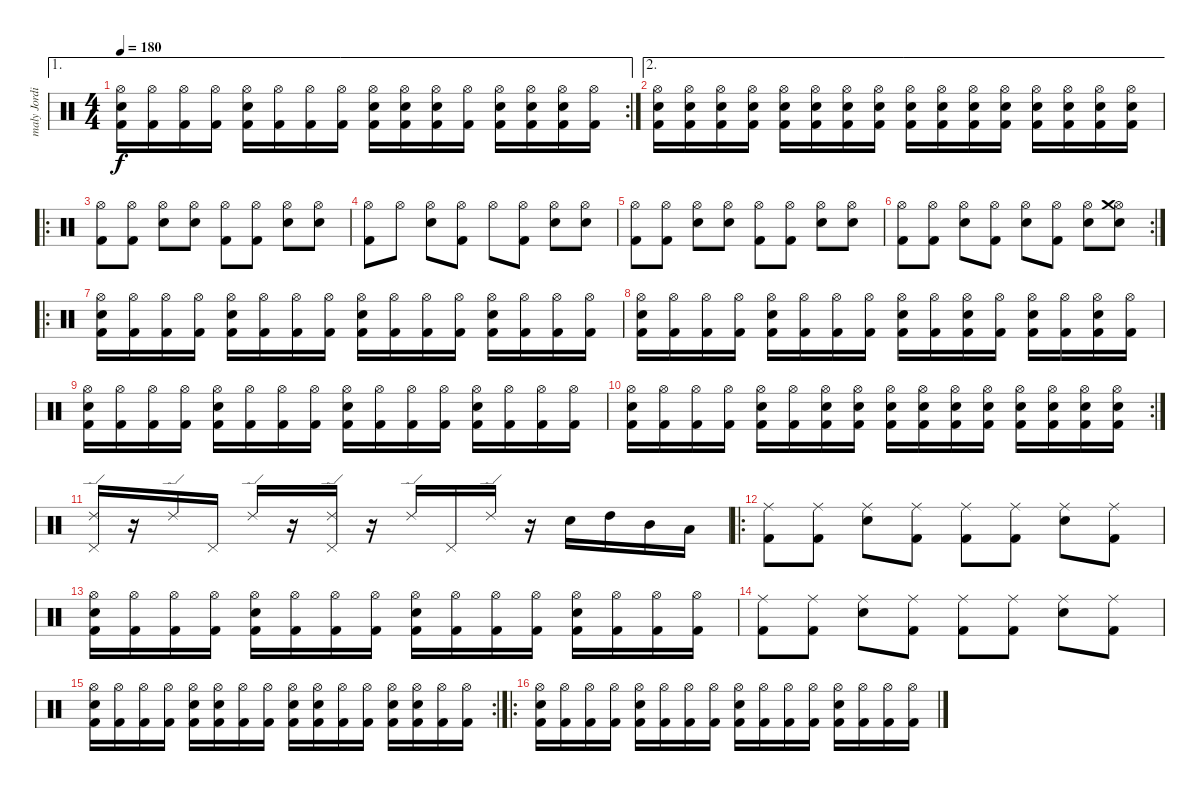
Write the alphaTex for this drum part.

\track ("maly Jordison " "maly Jordi") {instrument percussion}
\staff {score}
\articulation defaults
\ae 1
\rc 2
\ts (4 4)
\tempo 180
\clef neutral
\ks c
("Hi-Hat (open)" "Electric Snare (hit)" "Kick (hit) 2").16{dy f} ("Hi-Hat (open)" "Kick (hit) 2").16 ("Hi-Hat (open)" "Kick (hit) 2").16 ("Hi-Hat (open)" "Kick (hit) 2").16 ("Hi-Hat (open)" "Electric Snare (hit)" "Kick (hit) 2").16 ("Hi-Hat (open)" "Kick (hit) 2").16 ("Hi-Hat (open)" "Kick (hit) 2").16 ("Hi-Hat (open)" "Kick (hit) 2").16 ("Hi-Hat (open)" "Electric Snare (hit)" "Kick (hit) 2").16 ("Hi-Hat (open)" "Electric Snare (hit)" "Kick (hit) 2").16 ("Hi-Hat (open)" "Electric Snare (hit)" "Kick (hit) 2").16 ("Hi-Hat (open)" "Kick (hit) 2").16 ("Hi-Hat (open)" "Electric Snare (hit)" "Kick (hit) 2").16 ("Hi-Hat (open)" "Electric Snare (hit)" "Kick (hit) 2").16 ("Hi-Hat (open)" "Electric Snare (hit)" "Kick (hit) 2").16 ("Hi-Hat (open)" "Kick (hit) 2").16 |
\ae 2
("Hi-Hat (open)" "Electric Snare (hit)" "Kick (hit) 2").16 ("Hi-Hat (open)" "Electric Snare (hit)" "Kick (hit) 2").16 ("Hi-Hat (open)" "Electric Snare (hit)" "Kick (hit) 2").16 ("Hi-Hat (open)" "Electric Snare (hit)" "Kick (hit) 2").16 ("Hi-Hat (open)" "Electric Snare (hit)" "Kick (hit) 2").16 ("Hi-Hat (open)" "Electric Snare (hit)" "Kick (hit) 2").16 ("Hi-Hat (open)" "Electric Snare (hit)" "Kick (hit) 2").16 ("Hi-Hat (open)" "Electric Snare (hit)" "Kick (hit) 2").16 ("Hi-Hat (open)" "Electric Snare (hit)" "Kick (hit) 2").16 ("Hi-Hat (open)" "Electric Snare (hit)" "Kick (hit) 2").16 ("Hi-Hat (open)" "Electric Snare (hit)" "Kick (hit) 2").16 ("Hi-Hat (open)" "Electric Snare (hit)" "Kick (hit) 2").16 ("Hi-Hat (open)" "Electric Snare (hit)" "Kick (hit) 2").16 ("Hi-Hat (open)" "Electric Snare (hit)" "Kick (hit) 2").16 ("Hi-Hat (open)" "Electric Snare (hit)" "Kick (hit) 2").16 ("Hi-Hat (open)" "Electric Snare (hit)" "Kick (hit) 2").16 |
\ro
("Hi-Hat (open)" "Kick (hit) 2").8 ("Hi-Hat (open)" "Kick (hit) 2").8 ("Hi-Hat (open)" "Electric Snare (hit)").8 ("Hi-Hat (open)" "Electric Snare (hit)").8 ("Hi-Hat (open)" "Kick (hit) 2").8 ("Hi-Hat (open)" "Kick (hit) 2").8 ("Hi-Hat (open)" "Electric Snare (hit)").8 ("Hi-Hat (open)" "Electric Snare (hit)").8 |
("Hi-Hat (open)" "Kick (hit) 2").8 "Hi-Hat (open)".8 ("Hi-Hat (open)" "Electric Snare (hit)").8 ("Hi-Hat (open)" "Kick (hit) 2").8 "Hi-Hat (open)".8 ("Hi-Hat (open)" "Kick (hit) 2").8 ("Hi-Hat (open)" "Electric Snare (hit)").8 ("Hi-Hat (open)" "Electric Snare (hit)").8 |
("Hi-Hat (open)" "Kick (hit) 2").8 ("Hi-Hat (open)" "Kick (hit) 2").8 ("Hi-Hat (open)" "Electric Snare (hit)").8 ("Hi-Hat (open)" "Electric Snare (hit)").8 ("Hi-Hat (open)" "Kick (hit) 2").8 ("Hi-Hat (open)" "Kick (hit) 2").8 ("Hi-Hat (open)" "Electric Snare (hit)").8 ("Hi-Hat (open)" "Electric Snare (hit)").8 |
\rc 2
("Hi-Hat (open)" "Kick (hit) 2").8 ("Hi-Hat (open)" "Kick (hit) 2").8 ("Hi-Hat (open)" "Electric Snare (hit)").8 ("Hi-Hat (open)" "Kick (hit) 2").8 ("Hi-Hat (open)" "Electric Snare (hit)").8 ("Hi-Hat (open)" "Kick (hit) 2").8 ("Hi-Hat (open)" "Electric Snare (hit)").8 ("Hi-Hat (open)" "Crash medium (hit)" "Electric Snare (hit)").8 |
\ro
("Hi-Hat (open)" "Electric Snare (hit)" "Kick (hit) 2").16 ("Hi-Hat (open)" "Kick (hit) 2").16 ("Hi-Hat (open)" "Kick (hit) 2").16 ("Hi-Hat (open)" "Kick (hit) 2").16 ("Hi-Hat (open)" "Electric Snare (hit)" "Kick (hit) 2").16 ("Hi-Hat (open)" "Kick (hit) 2").16 ("Hi-Hat (open)" "Kick (hit) 2").16 ("Hi-Hat (open)" "Kick (hit) 2").16 ("Hi-Hat (open)" "Electric Snare (hit)" "Kick (hit) 2").16 ("Hi-Hat (open)" "Kick (hit) 2").16 ("Hi-Hat (open)" "Kick (hit) 2").16 ("Hi-Hat (open)" "Kick (hit) 2").16 ("Hi-Hat (open)" "Electric Snare (hit)" "Kick (hit) 2").16 ("Hi-Hat (open)" "Kick (hit) 2").16 ("Hi-Hat (open)" "Kick (hit) 2").16 ("Hi-Hat (open)" "Kick (hit) 2").16 |
("Hi-Hat (open)" "Electric Snare (hit)" "Kick (hit) 2").16 ("Hi-Hat (open)" "Kick (hit) 2").16 ("Hi-Hat (open)" "Kick (hit) 2").16 ("Hi-Hat (open)" "Kick (hit) 2").16 ("Hi-Hat (open)" "Electric Snare (hit)" "Kick (hit) 2").16 ("Hi-Hat (open)" "Kick (hit) 2").16 ("Hi-Hat (open)" "Kick (hit) 2").16 ("Hi-Hat (open)" "Kick (hit) 2").16 ("Hi-Hat (open)" "Electric Snare (hit)" "Kick (hit) 2").16 ("Hi-Hat (open)" "Kick (hit) 2").16 ("Hi-Hat (open)" "Electric Snare (hit)" "Kick (hit) 2").16 ("Hi-Hat (open)" "Kick (hit) 2").16 ("Hi-Hat (open)" "Electric Snare (hit)" "Kick (hit) 2").16 ("Hi-Hat (open)" "Kick (hit) 2").16 ("Hi-Hat (open)" "Electric Snare (hit)" "Kick (hit) 2").16 ("Hi-Hat (open)" "Kick (hit) 2").16 |
("Hi-Hat (open)" "Electric Snare (hit)" "Kick (hit) 2").16 ("Hi-Hat (open)" "Kick (hit) 2").16 ("Hi-Hat (open)" "Kick (hit) 2").16 ("Hi-Hat (open)" "Kick (hit) 2").16 ("Hi-Hat (open)" "Electric Snare (hit)" "Kick (hit) 2").16 ("Hi-Hat (open)" "Kick (hit) 2").16 ("Hi-Hat (open)" "Kick (hit) 2").16 ("Hi-Hat (open)" "Kick (hit) 2").16 ("Hi-Hat (open)" "Electric Snare (hit)" "Kick (hit) 2").16 ("Hi-Hat (open)" "Kick (hit) 2").16 ("Hi-Hat (open)" "Kick (hit) 2").16 ("Hi-Hat (open)" "Kick (hit) 2").16 ("Hi-Hat (open)" "Electric Snare (hit)" "Kick (hit) 2").16 ("Hi-Hat (open)" "Kick (hit) 2").16 ("Hi-Hat (open)" "Kick (hit) 2").16 ("Hi-Hat (open)" "Kick (hit) 2").16 |
\rc 2
("Hi-Hat (open)" "Electric Snare (hit)" "Kick (hit) 2").16 ("Hi-Hat (open)" "Kick (hit) 2").16 ("Hi-Hat (open)" "Kick (hit) 2").16 ("Hi-Hat (open)" "Kick (hit) 2").16 ("Hi-Hat (open)" "Electric Snare (hit)" "Kick (hit) 2").16 ("Hi-Hat (open)" "Kick (hit) 2").16 ("Hi-Hat (open)" "Electric Snare (hit)" "Kick (hit) 2").16 ("Hi-Hat (open)" "Electric Snare (hit)" "Kick (hit) 2").16 ("Hi-Hat (open)" "Electric Snare (hit)" "Kick (hit) 2").16 ("Hi-Hat (open)" "Electric Snare (hit)" "Kick (hit) 2").16 ("Hi-Hat (open)" "Electric Snare (hit)" "Kick (hit) 2").16 ("Hi-Hat (open)" "Electric Snare (hit)" "Kick (hit) 2").16 ("Hi-Hat (open)" "Electric Snare (hit)" "Kick (hit) 2").16 ("Hi-Hat (open)" "Electric Snare (hit)" "Kick (hit) 2").16 ("Hi-Hat (open)" "Electric Snare (hit)" "Kick (hit) 2").16 ("Hi-Hat (open)" "Electric Snare (hit)" "Kick (hit) 2").16 |
("Pedal Hi-Hat (hit)" "Ride (edge) 2").16 r.16 "Ride (edge) 2".16 "Pedal Hi-Hat (hit)".16 "Ride (edge) 2".16 r.16 ("Pedal Hi-Hat (hit)" "Ride (edge) 2").16 r.16 "Ride (edge) 2".16 "Pedal Hi-Hat (hit)".16 "Ride (edge) 2".16 r.16 "Electric Snare (hit)".16 "High Tom (hit)".16 "Mid Tom (hit)".16 "Low Tom (hit)".16 |
\ro
("Ride (middle)" "Kick (hit) 2").8 ("Ride (middle)" "Kick (hit) 2").8 ("Ride (middle)" "Electric Snare (hit)").8 ("Ride (middle)" "Kick (hit) 2").8 ("Ride (middle)" "Kick (hit) 2").8 ("Ride (middle)" "Kick (hit) 2").8 ("Ride (middle)" "Electric Snare (hit)").8 ("Ride (middle)" "Kick (hit) 2").8 |
("Hi-Hat (open)" "Electric Snare (hit)" "Kick (hit) 2").16 ("Hi-Hat (open)" "Kick (hit) 2").16 ("Hi-Hat (open)" "Kick (hit) 2").16 ("Hi-Hat (open)" "Kick (hit) 2").16 ("Hi-Hat (open)" "Electric Snare (hit)" "Kick (hit) 2").16 ("Hi-Hat (open)" "Kick (hit) 2").16 ("Hi-Hat (open)" "Kick (hit) 2").16 ("Hi-Hat (open)" "Kick (hit) 2").16 ("Hi-Hat (open)" "Electric Snare (hit)" "Kick (hit) 2").16 ("Hi-Hat (open)" "Kick (hit) 2").16 ("Hi-Hat (open)" "Kick (hit) 2").16 ("Hi-Hat (open)" "Kick (hit) 2").16 ("Hi-Hat (open)" "Electric Snare (hit)" "Kick (hit) 2").16 ("Hi-Hat (open)" "Kick (hit) 2").16 ("Hi-Hat (open)" "Kick (hit) 2").16 ("Hi-Hat (open)" "Kick (hit) 2").16 |
("Ride (middle)" "Kick (hit) 2").8 ("Ride (middle)" "Kick (hit) 2").8 ("Ride (middle)" "Electric Snare (hit)").8 ("Ride (middle)" "Kick (hit) 2").8 ("Ride (middle)" "Kick (hit) 2").8 ("Ride (middle)" "Kick (hit) 2").8 ("Ride (middle)" "Electric Snare (hit)").8 ("Ride (middle)" "Kick (hit) 2").8 |
\rc 2
("Hi-Hat (open)" "Electric Snare (hit)" "Kick (hit) 2").16 ("Hi-Hat (open)" "Kick (hit) 2").16 ("Hi-Hat (open)" "Kick (hit) 2").16 ("Hi-Hat (open)" "Kick (hit) 2").16 ("Hi-Hat (open)" "Electric Snare (hit)" "Kick (hit) 2").16 ("Hi-Hat (open)" "Electric Snare (hit)" "Kick (hit) 2").16 ("Hi-Hat (open)" "Kick (hit) 2").16 ("Hi-Hat (open)" "Kick (hit) 2").16 ("Hi-Hat (open)" "Electric Snare (hit)" "Kick (hit) 2").16 ("Hi-Hat (open)" "Electric Snare (hit)" "Kick (hit) 2").16 ("Hi-Hat (open)" "Kick (hit) 2").16 ("Hi-Hat (open)" "Kick (hit) 2").16 ("Hi-Hat (open)" "Electric Snare (hit)" "Kick (hit) 2").16 ("Hi-Hat (open)" "Electric Snare (hit)" "Kick (hit) 2").16 ("Hi-Hat (open)" "Kick (hit) 2").16 ("Hi-Hat (open)" "Kick (hit) 2").16 |
\ro
("Hi-Hat (open)" "Electric Snare (hit)" "Kick (hit) 2").16 ("Hi-Hat (open)" "Kick (hit) 2").16 ("Hi-Hat (open)" "Kick (hit) 2").16 ("Hi-Hat (open)" "Kick (hit) 2").16 ("Hi-Hat (open)" "Electric Snare (hit)" "Kick (hit) 2").16 ("Hi-Hat (open)" "Kick (hit) 2").16 ("Hi-Hat (open)" "Kick (hit) 2").16 ("Hi-Hat (open)" "Kick (hit) 2").16 ("Hi-Hat (open)" "Electric Snare (hit)" "Kick (hit) 2").16 ("Hi-Hat (open)" "Kick (hit) 2").16 ("Hi-Hat (open)" "Kick (hit) 2").16 ("Hi-Hat (open)" "Kick (hit) 2").16 ("Hi-Hat (open)" "Electric Snare (hit)" "Kick (hit) 2").16 ("Hi-Hat (open)" "Kick (hit) 2").16 ("Hi-Hat (open)" "Kick (hit) 2").16 ("Hi-Hat (open)" "Kick (hit) 2").16
